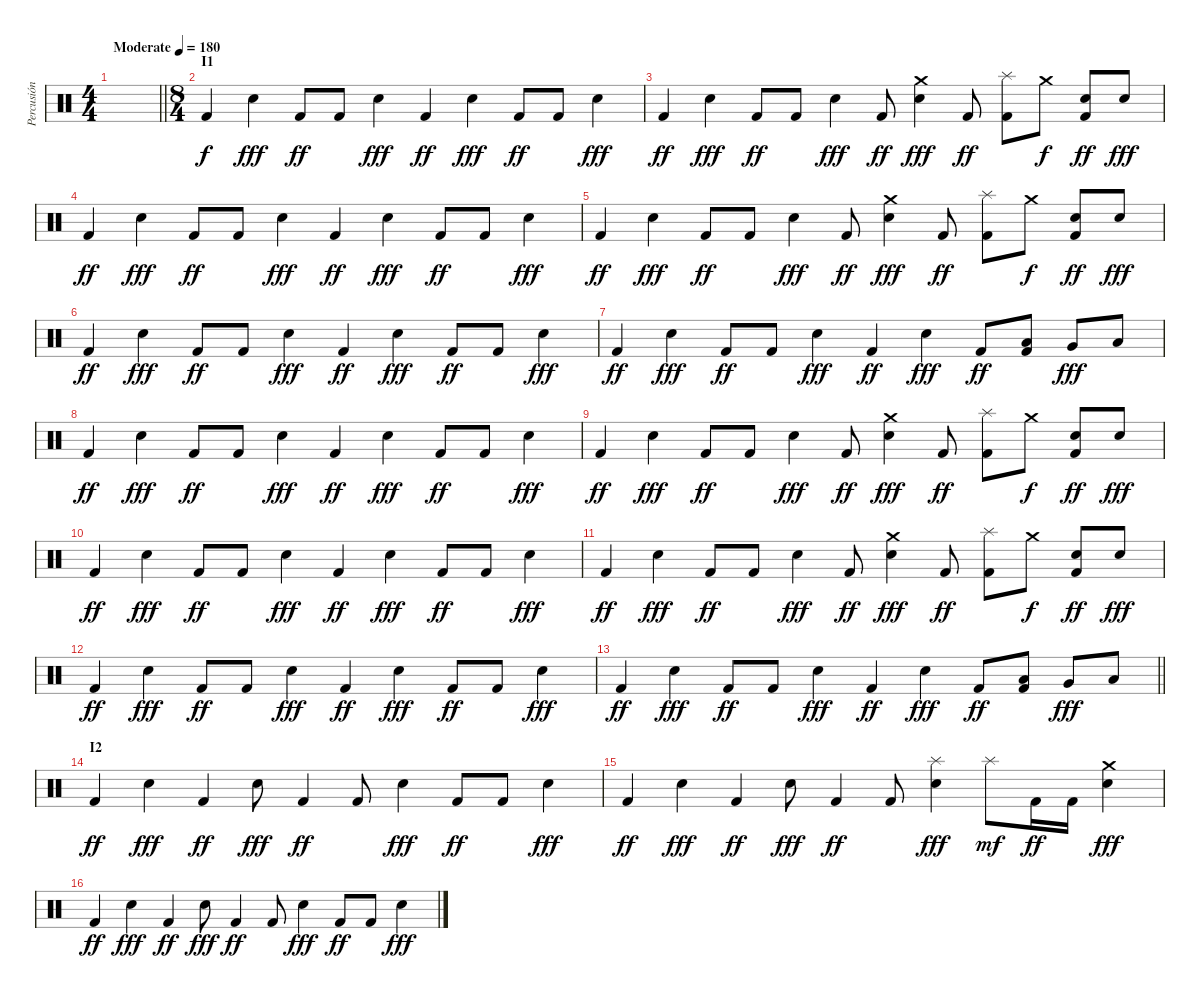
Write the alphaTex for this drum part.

\track ("Percusión" "Percusión") {instrument percussion}
\staff {score}
\articulation defaults
\ts (4 4)
\tempo (180 "Moderate")
\clef neutral
\barLineRight lightlight
\ks c
|
\ts (8 4)
\section ("" "I1")
"Kick (hit) 2".4 "Electric Snare (hit)".4{dy fff} "Kick (hit) 2".8{dy ff} "Kick (hit) 2".8 "Electric Snare (hit)".4{dy fff} "Kick (hit) 2".4{dy ff} "Electric Snare (hit)".4{dy fff} "Kick (hit) 2".8{dy ff} "Kick (hit) 2".8 "Electric Snare (hit)".4{dy fff} |
"Kick (hit) 2".4{dy ff} "Electric Snare (hit)".4{dy fff} "Kick (hit) 2".8{dy ff} "Kick (hit) 2".8 "Electric Snare (hit)".4{dy fff} "Kick (hit) 2".8{dy ff} ("Crash medium (hit)" "Electric Snare (hit)").4{dy fff} "Kick (hit) 2".8{dy ff} ("Splash (hit)" "Kick (hit) 2").8 "Crash medium (hit)".8{dy f} ("Electric Snare (hit)" "Kick (hit) 2").8{dy ff} "Electric Snare (hit)".8{dy fff} |
"Kick (hit) 2".4{dy ff} "Electric Snare (hit)".4{dy fff} "Kick (hit) 2".8{dy ff} "Kick (hit) 2".8 "Electric Snare (hit)".4{dy fff} "Kick (hit) 2".4{dy ff} "Electric Snare (hit)".4{dy fff} "Kick (hit) 2".8{dy ff} "Kick (hit) 2".8 "Electric Snare (hit)".4{dy fff} |
"Kick (hit) 2".4{dy ff} "Electric Snare (hit)".4{dy fff} "Kick (hit) 2".8{dy ff} "Kick (hit) 2".8 "Electric Snare (hit)".4{dy fff} "Kick (hit) 2".8{dy ff} ("Crash medium (hit)" "Electric Snare (hit)").4{dy fff} "Kick (hit) 2".8{dy ff} ("Splash (hit)" "Kick (hit) 2").8 "Crash medium (hit)".8{dy f} ("Electric Snare (hit)" "Kick (hit) 2").8{dy ff} "Electric Snare (hit)".8{dy fff} |
"Kick (hit) 2".4{dy ff} "Electric Snare (hit)".4{dy fff} "Kick (hit) 2".8{dy ff} "Kick (hit) 2".8 "Electric Snare (hit)".4{dy fff} "Kick (hit) 2".4{dy ff} "Electric Snare (hit)".4{dy fff} "Kick (hit) 2".8{dy ff} "Kick (hit) 2".8 "Electric Snare (hit)".4{dy fff} |
"Kick (hit) 2".4{dy ff} "Electric Snare (hit)".4{dy fff} "Kick (hit) 2".8{dy ff} "Kick (hit) 2".8 "Electric Snare (hit)".4{dy fff} "Kick (hit) 2".4{dy ff} "Electric Snare (hit)".4{dy fff} "Kick (hit) 2".8{dy ff} ("Low Floor Tom (hit)" "Kick (hit) 2").8 "Very Low Tom (hit)".8{dy fff} "Low Tom (hit)".8 |
"Kick (hit) 2".4{dy ff} "Electric Snare (hit)".4{dy fff} "Kick (hit) 2".8{dy ff} "Kick (hit) 2".8 "Electric Snare (hit)".4{dy fff} "Kick (hit) 2".4{dy ff} "Electric Snare (hit)".4{dy fff} "Kick (hit) 2".8{dy ff} "Kick (hit) 2".8 "Electric Snare (hit)".4{dy fff} |
"Kick (hit) 2".4{dy ff} "Electric Snare (hit)".4{dy fff} "Kick (hit) 2".8{dy ff} "Kick (hit) 2".8 "Electric Snare (hit)".4{dy fff} "Kick (hit) 2".8{dy ff} ("Crash medium (hit)" "Electric Snare (hit)").4{dy fff} "Kick (hit) 2".8{dy ff} ("Splash (hit)" "Kick (hit) 2").8 "Crash medium (hit)".8{dy f} ("Electric Snare (hit)" "Kick (hit) 2").8{dy ff} "Electric Snare (hit)".8{dy fff} |
"Kick (hit) 2".4{dy ff} "Electric Snare (hit)".4{dy fff} "Kick (hit) 2".8{dy ff} "Kick (hit) 2".8 "Electric Snare (hit)".4{dy fff} "Kick (hit) 2".4{dy ff} "Electric Snare (hit)".4{dy fff} "Kick (hit) 2".8{dy ff} "Kick (hit) 2".8 "Electric Snare (hit)".4{dy fff} |
"Kick (hit) 2".4{dy ff} "Electric Snare (hit)".4{dy fff} "Kick (hit) 2".8{dy ff} "Kick (hit) 2".8 "Electric Snare (hit)".4{dy fff} "Kick (hit) 2".8{dy ff} ("Crash medium (hit)" "Electric Snare (hit)").4{dy fff} "Kick (hit) 2".8{dy ff} ("Splash (hit)" "Kick (hit) 2").8 "Crash medium (hit)".8{dy f} ("Electric Snare (hit)" "Kick (hit) 2").8{dy ff} "Electric Snare (hit)".8{dy fff} |
"Kick (hit) 2".4{dy ff} "Electric Snare (hit)".4{dy fff} "Kick (hit) 2".8{dy ff} "Kick (hit) 2".8 "Electric Snare (hit)".4{dy fff} "Kick (hit) 2".4{dy ff} "Electric Snare (hit)".4{dy fff} "Kick (hit) 2".8{dy ff} "Kick (hit) 2".8 "Electric Snare (hit)".4{dy fff} |
\barLineRight lightlight "Kick (hit) 2".4{dy ff} "Electric Snare (hit)".4{dy fff} "Kick (hit) 2".8{dy ff} "Kick (hit) 2".8 "Electric Snare (hit)".4{dy fff} "Kick (hit) 2".4{dy ff} "Electric Snare (hit)".4{dy fff} "Kick (hit) 2".8{dy ff}
("Low Floor Tom (hit)" "Kick (hit) 2").8 "Very Low Tom (hit)".8{dy fff} "Low Tom (hit)".8 |
\section ("" "I2")
"Kick (hit) 2".4{dy ff} "Electric Snare (hit)".4{dy fff} "Kick (hit) 2".4{dy ff} "Electric Snare (hit)".8{dy fff} "Kick (hit) 2".4{dy ff} "Kick (hit) 2".8 "Electric Snare (hit)".4{dy fff} "Kick (hit) 2".8{dy ff} "Kick (hit) 2".8 "Electric Snare (hit)".4{dy fff} |
"Kick (hit) 2".4{dy ff} "Electric Snare (hit)".4{dy fff} "Kick (hit) 2".4{dy ff} "Electric Snare (hit)".8{dy fff} "Kick (hit) 2".4{dy ff} "Kick (hit) 2".8 ("Splash (hit)" "Electric Snare (hit)").4{dy fff} "Splash (hit)".8{dy mf} "Kick (hit) 2".16{dy ff} "Kick (hit) 2".16 ("Crash medium (hit)" "Electric Snare (hit)").4{dy fff} |
"Kick (hit) 2".4{dy ff} "Electric Snare (hit)".4{dy fff} "Kick (hit) 2".4{dy ff} "Electric Snare (hit)".8{dy fff} "Kick (hit) 2".4{dy ff} "Kick (hit) 2".8 "Electric Snare (hit)".4{dy fff} "Kick (hit) 2".8{dy ff} "Kick (hit) 2".8 "Electric Snare (hit)".4{dy fff}
